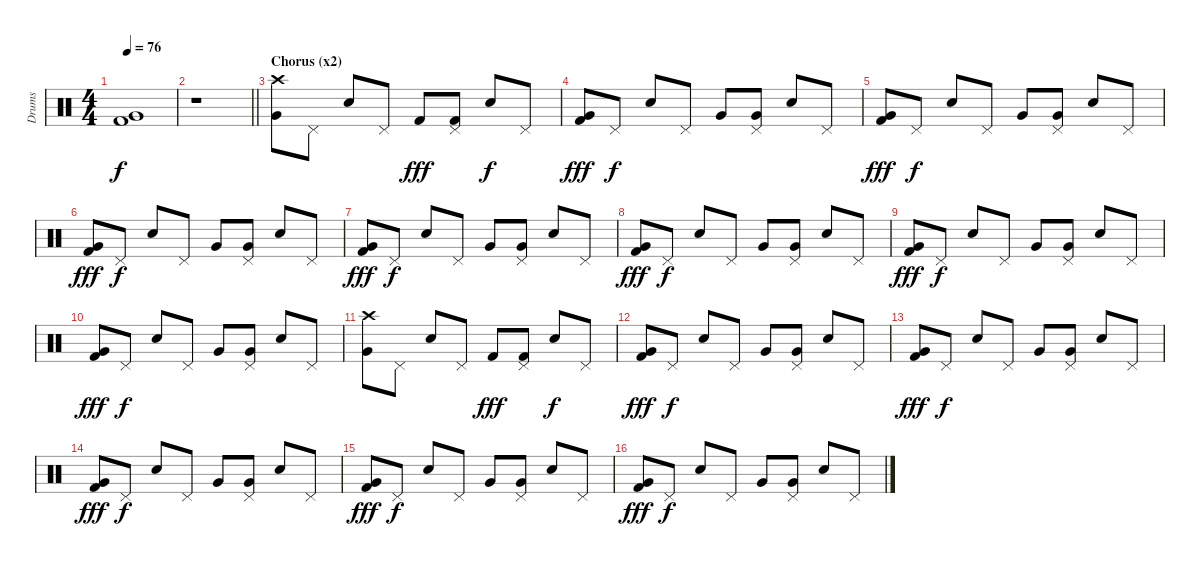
\track ("Drums" "Drums") {instrument percussion}
\staff {score}
\articulation defaults
\ts (4 4)
\tempo 76
\clef neutral
\ks c
("Kick (hit) 2" "Very Low Tom (hit)").1{dy f} |
\barLineRight lightlight
r.1 |
\section ("" "Chorus (x2)")
("Crash high (hit)" "Very Low Tom (hit)").8 "Pedal Hi-Hat (hit)".8 "Electric Snare (hit)".8 "Pedal Hi-Hat (hit)".8 "Kick (hit) 2".8{dy fff} ("Kick (hit) 2" "Pedal Hi-Hat (hit)").8 "Electric Snare (hit)".8{dy f} "Pedal Hi-Hat (hit)".8 |
("Kick (hit) 2" "Very Low Tom (hit)").8{dy fff} "Pedal Hi-Hat (hit)".8{dy f} "Electric Snare (hit)".8 "Pedal Hi-Hat (hit)".8 "Very Low Tom (hit)".8 ("Very Low Tom (hit)" "Pedal Hi-Hat (hit)").8 "Electric Snare (hit)".8 "Pedal Hi-Hat (hit)".8 |
("Kick (hit) 2" "Very Low Tom (hit)").8{dy fff} "Pedal Hi-Hat (hit)".8{dy f} "Electric Snare (hit)".8 "Pedal Hi-Hat (hit)".8 "Very Low Tom (hit)".8 ("Very Low Tom (hit)" "Pedal Hi-Hat (hit)").8 "Electric Snare (hit)".8 "Pedal Hi-Hat (hit)".8 |
("Kick (hit) 2" "Very Low Tom (hit)").8{dy fff} "Pedal Hi-Hat (hit)".8{dy f} "Electric Snare (hit)".8 "Pedal Hi-Hat (hit)".8 "Very Low Tom (hit)".8 ("Very Low Tom (hit)" "Pedal Hi-Hat (hit)").8 "Electric Snare (hit)".8 "Pedal Hi-Hat (hit)".8 |
("Kick (hit) 2" "Very Low Tom (hit)").8{dy fff} "Pedal Hi-Hat (hit)".8{dy f} "Electric Snare (hit)".8 "Pedal Hi-Hat (hit)".8 "Very Low Tom (hit)".8 ("Very Low Tom (hit)" "Pedal Hi-Hat (hit)").8 "Electric Snare (hit)".8 "Pedal Hi-Hat (hit)".8 |
("Kick (hit) 2" "Very Low Tom (hit)").8{dy fff} "Pedal Hi-Hat (hit)".8{dy f} "Electric Snare (hit)".8 "Pedal Hi-Hat (hit)".8 "Very Low Tom (hit)".8 ("Very Low Tom (hit)" "Pedal Hi-Hat (hit)").8 "Electric Snare (hit)".8 "Pedal Hi-Hat (hit)".8 |
("Kick (hit) 2" "Very Low Tom (hit)").8{dy fff} "Pedal Hi-Hat (hit)".8{dy f} "Electric Snare (hit)".8 "Pedal Hi-Hat (hit)".8 "Very Low Tom (hit)".8 ("Very Low Tom (hit)" "Pedal Hi-Hat (hit)").8 "Electric Snare (hit)".8 "Pedal Hi-Hat (hit)".8 |
("Kick (hit) 2" "Very Low Tom (hit)").8{dy fff} "Pedal Hi-Hat (hit)".8{dy f} "Electric Snare (hit)".8 "Pedal Hi-Hat (hit)".8 "Very Low Tom (hit)".8 ("Very Low Tom (hit)" "Pedal Hi-Hat (hit)").8 "Electric Snare (hit)".8 "Pedal Hi-Hat (hit)".8 |
("Crash high (hit)" "Very Low Tom (hit)").8 "Pedal Hi-Hat (hit)".8 "Electric Snare (hit)".8 "Pedal Hi-Hat (hit)".8 "Kick (hit) 2".8{dy fff} ("Kick (hit) 2" "Pedal Hi-Hat (hit)").8 "Electric Snare (hit)".8{dy f} "Pedal Hi-Hat (hit)".8 |
("Kick (hit) 2" "Very Low Tom (hit)").8{dy fff} "Pedal Hi-Hat (hit)".8{dy f} "Electric Snare (hit)".8 "Pedal Hi-Hat (hit)".8 "Very Low Tom (hit)".8 ("Very Low Tom (hit)" "Pedal Hi-Hat (hit)").8 "Electric Snare (hit)".8 "Pedal Hi-Hat (hit)".8 |
("Kick (hit) 2" "Very Low Tom (hit)").8{dy fff} "Pedal Hi-Hat (hit)".8{dy f} "Electric Snare (hit)".8 "Pedal Hi-Hat (hit)".8 "Very Low Tom (hit)".8 ("Very Low Tom (hit)" "Pedal Hi-Hat (hit)").8 "Electric Snare (hit)".8 "Pedal Hi-Hat (hit)".8 |
("Kick (hit) 2" "Very Low Tom (hit)").8{dy fff} "Pedal Hi-Hat (hit)".8{dy f} "Electric Snare (hit)".8 "Pedal Hi-Hat (hit)".8 "Very Low Tom (hit)".8 ("Very Low Tom (hit)" "Pedal Hi-Hat (hit)").8 "Electric Snare (hit)".8 "Pedal Hi-Hat (hit)".8 |
("Kick (hit) 2" "Very Low Tom (hit)").8{dy fff} "Pedal Hi-Hat (hit)".8{dy f} "Electric Snare (hit)".8 "Pedal Hi-Hat (hit)".8 "Very Low Tom (hit)".8 ("Very Low Tom (hit)" "Pedal Hi-Hat (hit)").8 "Electric Snare (hit)".8 "Pedal Hi-Hat (hit)".8 |
("Kick (hit) 2" "Very Low Tom (hit)").8{dy fff} "Pedal Hi-Hat (hit)".8{dy f} "Electric Snare (hit)".8 "Pedal Hi-Hat (hit)".8 "Very Low Tom (hit)".8 ("Very Low Tom (hit)" "Pedal Hi-Hat (hit)").8 "Electric Snare (hit)".8 "Pedal Hi-Hat (hit)".8
